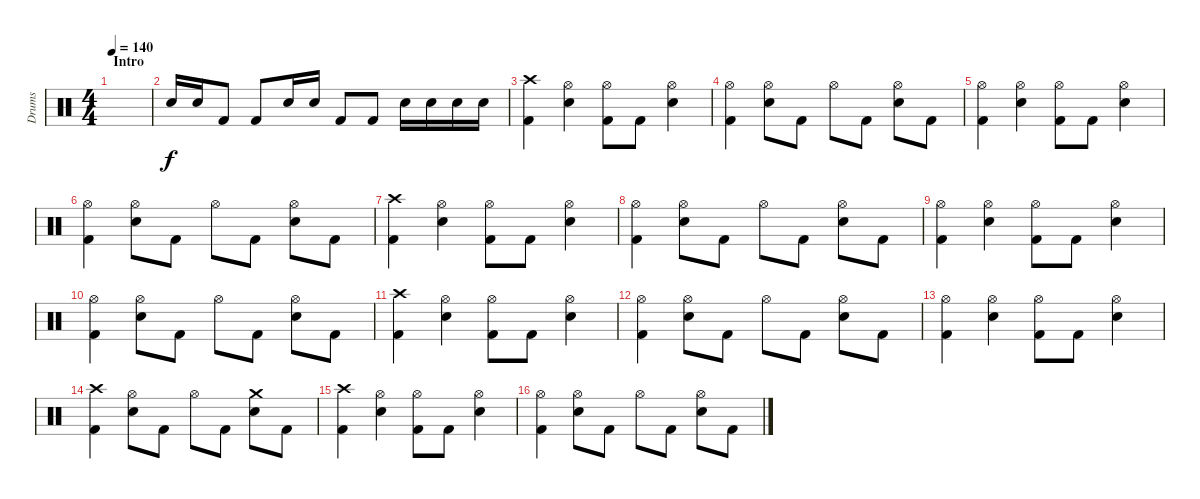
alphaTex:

\track ("Drums" "Drums") {instrument percussion}
\staff {score}
\articulation defaults
\ts (4 4)
\section ("" "Intro")
\tempo 140
\clef neutral
\ks c
|
"Electric Snare (hit)".16 "Electric Snare (hit)".16 "Kick (hit) 2".8 "Kick (hit) 2".8 "Electric Snare (hit)".16 "Electric Snare (hit)".16 "Kick (hit) 2".8 "Kick (hit) 2".8 "Electric Snare (hit)".16 "Electric Snare (hit)".16 "Electric Snare (hit)".16 "Electric Snare (hit)".16 |
("Crash high (hit)" "Kick (hit) 2").4 ("Hi-Hat (open)" "Electric Snare (hit)").4 ("Hi-Hat (open)" "Kick (hit) 2").8 "Kick (hit) 2".8 ("Hi-Hat (open)" "Electric Snare (hit)").4 |
("Hi-Hat (open)" "Kick (hit) 2").4 ("Hi-Hat (open)" "Electric Snare (hit)").8 "Kick (hit) 2".8 "Hi-Hat (open)".8 "Kick (hit) 2".8 ("Hi-Hat (open)" "Electric Snare (hit)").8 "Kick (hit) 2".8 |
("Hi-Hat (open)" "Kick (hit) 2").4 ("Hi-Hat (open)" "Electric Snare (hit)").4 ("Hi-Hat (open)" "Kick (hit) 2").8 "Kick (hit) 2".8 ("Hi-Hat (open)" "Electric Snare (hit)").4 |
("Hi-Hat (open)" "Kick (hit) 2").4 ("Hi-Hat (open)" "Electric Snare (hit)").8 "Kick (hit) 2".8 "Hi-Hat (open)".8 "Kick (hit) 2".8 ("Hi-Hat (open)" "Electric Snare (hit)").8 "Kick (hit) 2".8 |
("Crash high (hit)" "Kick (hit) 2").4 ("Hi-Hat (open)" "Electric Snare (hit)").4 ("Hi-Hat (open)" "Kick (hit) 2").8 "Kick (hit) 2".8 ("Hi-Hat (open)" "Electric Snare (hit)").4 |
("Hi-Hat (open)" "Kick (hit) 2").4 ("Hi-Hat (open)" "Electric Snare (hit)").8 "Kick (hit) 2".8 "Hi-Hat (open)".8 "Kick (hit) 2".8 ("Hi-Hat (open)" "Electric Snare (hit)").8 "Kick (hit) 2".8 |
("Hi-Hat (open)" "Kick (hit) 2").4 ("Hi-Hat (open)" "Electric Snare (hit)").4 ("Hi-Hat (open)" "Kick (hit) 2").8 "Kick (hit) 2".8 ("Hi-Hat (open)" "Electric Snare (hit)").4 |
("Hi-Hat (open)" "Kick (hit) 2").4 ("Hi-Hat (open)" "Electric Snare (hit)").8 "Kick (hit) 2".8 "Hi-Hat (open)".8 "Kick (hit) 2".8 ("Hi-Hat (open)" "Electric Snare (hit)").8 "Kick (hit) 2".8 |
("Crash high (hit)" "Kick (hit) 2").4 ("Hi-Hat (open)" "Electric Snare (hit)").4 ("Hi-Hat (open)" "Kick (hit) 2").8 "Kick (hit) 2".8 ("Hi-Hat (open)" "Electric Snare (hit)").4 |
("Hi-Hat (open)" "Kick (hit) 2").4 ("Hi-Hat (open)" "Electric Snare (hit)").8 "Kick (hit) 2".8 "Hi-Hat (open)".8 "Kick (hit) 2".8 ("Hi-Hat (open)" "Electric Snare (hit)").8 "Kick (hit) 2".8 |
("Hi-Hat (open)" "Kick (hit) 2").4 ("Hi-Hat (open)" "Electric Snare (hit)").4 ("Hi-Hat (open)" "Kick (hit) 2").8 "Kick (hit) 2".8 ("Hi-Hat (open)" "Electric Snare (hit)").4 |
("Crash high (hit)" "Kick (hit) 2").4 ("Hi-Hat (open)" "Electric Snare (hit)").8 "Kick (hit) 2".8 "Hi-Hat (open)".8 "Kick (hit) 2".8 ("Crash medium (hit)" "Electric Snare (hit)").8 "Kick (hit) 2".8 |
("Crash high (hit)" "Kick (hit) 2").4 ("Hi-Hat (open)" "Electric Snare (hit)").4 ("Hi-Hat (open)" "Kick (hit) 2").8 "Kick (hit) 2".8 ("Hi-Hat (open)" "Electric Snare (hit)").4 |
("Hi-Hat (open)" "Kick (hit) 2").4 ("Hi-Hat (open)" "Electric Snare (hit)").8 "Kick (hit) 2".8 "Hi-Hat (open)".8 "Kick (hit) 2".8 ("Hi-Hat (open)" "Electric Snare (hit)").8 "Kick (hit) 2".8
